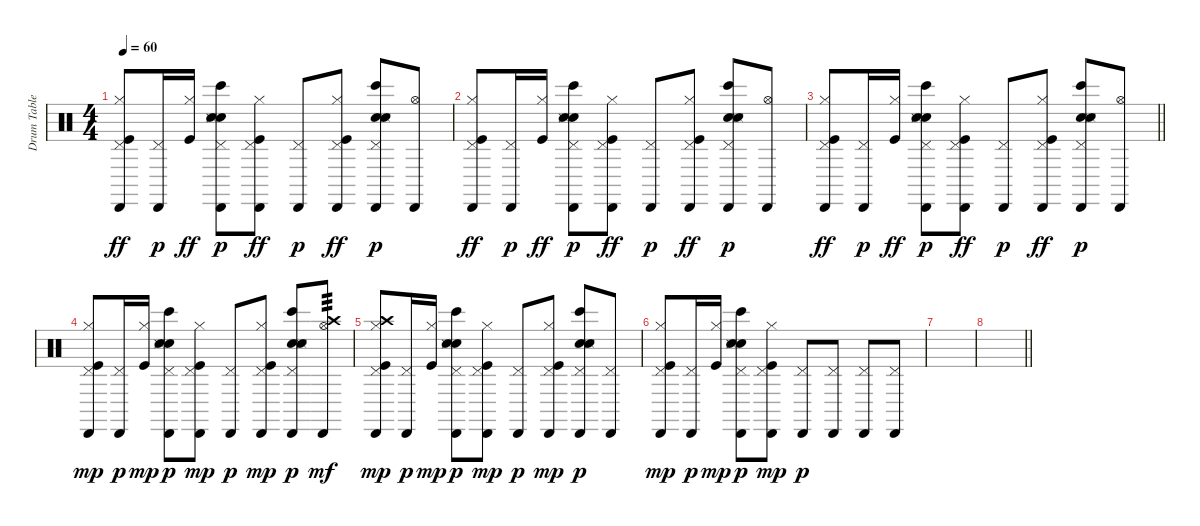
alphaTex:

\track ("Drum Table" "Drum Table") {instrument percussion}
\staff {score}
\articulation defaults
\ts (4 4)
\tempo 60
\clef neutral
\ks c
("Pedal Hi-Hat (hit)" "Cabasa (hit)" "Kick (hit)" "Hi-Hat (closed)").8{dy ff} ("Pedal Hi-Hat (hit)" "Cabasa (hit)").16{dy p} ("Kick (hit)" "Hi-Hat (closed)").16{dy ff} ("Hand Clap (hit)" "Bongo High (hit)" "Snare (side stick) 3" "Electric Snare (hit)" "Pedal Hi-Hat (hit)" "Cabasa (hit)").8{dy p} ("Pedal Hi-Hat (hit)" "Cabasa (hit)" "Kick (hit)" "Hi-Hat (closed)").8{dy ff} ("Pedal Hi-Hat (hit)" "Cabasa (hit)").8{dy p} ("Pedal Hi-Hat (hit)" "Cabasa (hit)" "Kick (hit)" "Hi-Hat (closed)").8{dy ff} ("Hand Clap (hit)" "Bongo High (hit)" "Snare (side stick) 3" "Electric Snare (hit)" "Pedal Hi-Hat (hit)" "Cabasa (hit)").8{dy p} ("Hi-Hat (open)" "Cabasa (hit)").8 |
("Pedal Hi-Hat (hit)" "Cabasa (hit)" "Kick (hit)" "Hi-Hat (closed)").8{dy ff} ("Pedal Hi-Hat (hit)" "Cabasa (hit)").16{dy p} ("Kick (hit)" "Hi-Hat (closed)").16{dy ff} ("Hand Clap (hit)" "Bongo High (hit)" "Snare (side stick) 3" "Electric Snare (hit)" "Pedal Hi-Hat (hit)" "Cabasa (hit)").8{dy p} ("Pedal Hi-Hat (hit)" "Cabasa (hit)" "Kick (hit)" "Hi-Hat (closed)").8{dy ff} ("Pedal Hi-Hat (hit)" "Cabasa (hit)").8{dy p} ("Pedal Hi-Hat (hit)" "Cabasa (hit)" "Kick (hit)" "Hi-Hat (closed)").8{dy ff} ("Hand Clap (hit)" "Bongo High (hit)" "Snare (side stick) 3" "Electric Snare (hit)" "Pedal Hi-Hat (hit)" "Cabasa (hit)").8{dy p} ("Hi-Hat (open)" "Cabasa (hit)").8 |
\barLineRight lightlight
("Pedal Hi-Hat (hit)" "Cabasa (hit)" "Kick (hit)" "Hi-Hat (closed)").8{dy ff} ("Pedal Hi-Hat (hit)" "Cabasa (hit)").16{dy p} ("Kick (hit)" "Hi-Hat (closed)").16{dy ff} ("Hand Clap (hit)" "Bongo High (hit)" "Snare (side stick) 3" "Electric Snare (hit)" "Pedal Hi-Hat (hit)" "Cabasa (hit)").8{dy p} ("Pedal Hi-Hat (hit)" "Cabasa (hit)" "Kick (hit)" "Hi-Hat (closed)").8{dy ff} ("Pedal Hi-Hat (hit)" "Cabasa (hit)").8{dy p} ("Pedal Hi-Hat (hit)" "Cabasa (hit)" "Kick (hit)" "Hi-Hat (closed)").8{dy ff} ("Hand Clap (hit)" "Bongo High (hit)" "Snare (side stick) 3" "Electric Snare (hit)" "Pedal Hi-Hat (hit)" "Cabasa (hit)").8{dy p} ("Hi-Hat (open)" "Cabasa (hit)").8 |
("Pedal Hi-Hat (hit)" "Cabasa (hit)" "Kick (hit)" "Hi-Hat (closed)").8{dy mp} ("Pedal Hi-Hat (hit)" "Cabasa (hit)").16{dy p} ("Kick (hit)" "Hi-Hat (closed)").16{dy mp} ("Hand Clap (hit)" "Bongo High (hit)" "Snare (side stick) 3" "Electric Snare (hit)" "Pedal Hi-Hat (hit)" "Cabasa (hit)").8{dy p} ("Pedal Hi-Hat (hit)" "Cabasa (hit)" "Kick (hit)" "Hi-Hat (closed)").8{dy mp} ("Pedal Hi-Hat (hit)" "Cabasa (hit)").8{dy p} ("Pedal Hi-Hat (hit)" "Cabasa (hit)" "Kick (hit)" "Hi-Hat (closed)").8{dy mp} ("Hand Clap (hit)" "Bongo High (hit)" "Snare (side stick) 3" "Electric Snare (hit)" "Pedal Hi-Hat (hit)" "Cabasa (hit)").8{dy p} ("Hi-Hat (open)" "Cabasa (hit)" "Crash high (hit)").8{tp 3 dy mf} |
("Pedal Hi-Hat (hit)" "Cabasa (hit)" "Crash high (hit)" "Kick (hit)" "Hi-Hat (closed)").8{dy mp} ("Pedal Hi-Hat (hit)" "Cabasa (hit)").16{dy p} ("Kick (hit)" "Hi-Hat (closed)").16{dy mp} ("Hand Clap (hit)" "Bongo High (hit)" "Snare (side stick) 3" "Electric Snare (hit)" "Pedal Hi-Hat (hit)" "Cabasa (hit)").8{dy p} ("Pedal Hi-Hat (hit)" "Cabasa (hit)" "Kick (hit)" "Hi-Hat (closed)").8{dy mp} ("Pedal Hi-Hat (hit)" "Cabasa (hit)").8{dy p} ("Pedal Hi-Hat (hit)" "Cabasa (hit)" "Kick (hit)" "Hi-Hat (closed)").8{dy mp} ("Hand Clap (hit)" "Bongo High (hit)" "Snare (side stick) 3" "Electric Snare (hit)" "Pedal Hi-Hat (hit)" "Cabasa (hit)").8{dy p} ("Pedal Hi-Hat (hit)" "Cabasa (hit)").8 |
("Pedal Hi-Hat (hit)" "Cabasa (hit)" "Kick (hit)" "Hi-Hat (closed)").8{dy mp} ("Pedal Hi-Hat (hit)" "Cabasa (hit)").16{dy p} ("Kick (hit)" "Hi-Hat (closed)").16{dy mp} ("Hand Clap (hit)" "Bongo High (hit)" "Snare (side stick) 3" "Electric Snare (hit)" "Pedal Hi-Hat (hit)" "Cabasa (hit)").8{dy p} ("Pedal Hi-Hat (hit)" "Cabasa (hit)" "Kick (hit)" "Hi-Hat (closed)").8{dy mp} ("Pedal Hi-Hat (hit)" "Cabasa (hit)").8{dy p} ("Pedal Hi-Hat (hit)" "Cabasa (hit)").8 ("Pedal Hi-Hat (hit)" "Cabasa (hit)").8 ("Pedal Hi-Hat (hit)" "Cabasa (hit)").8 |
|
\barLineRight lightlight
